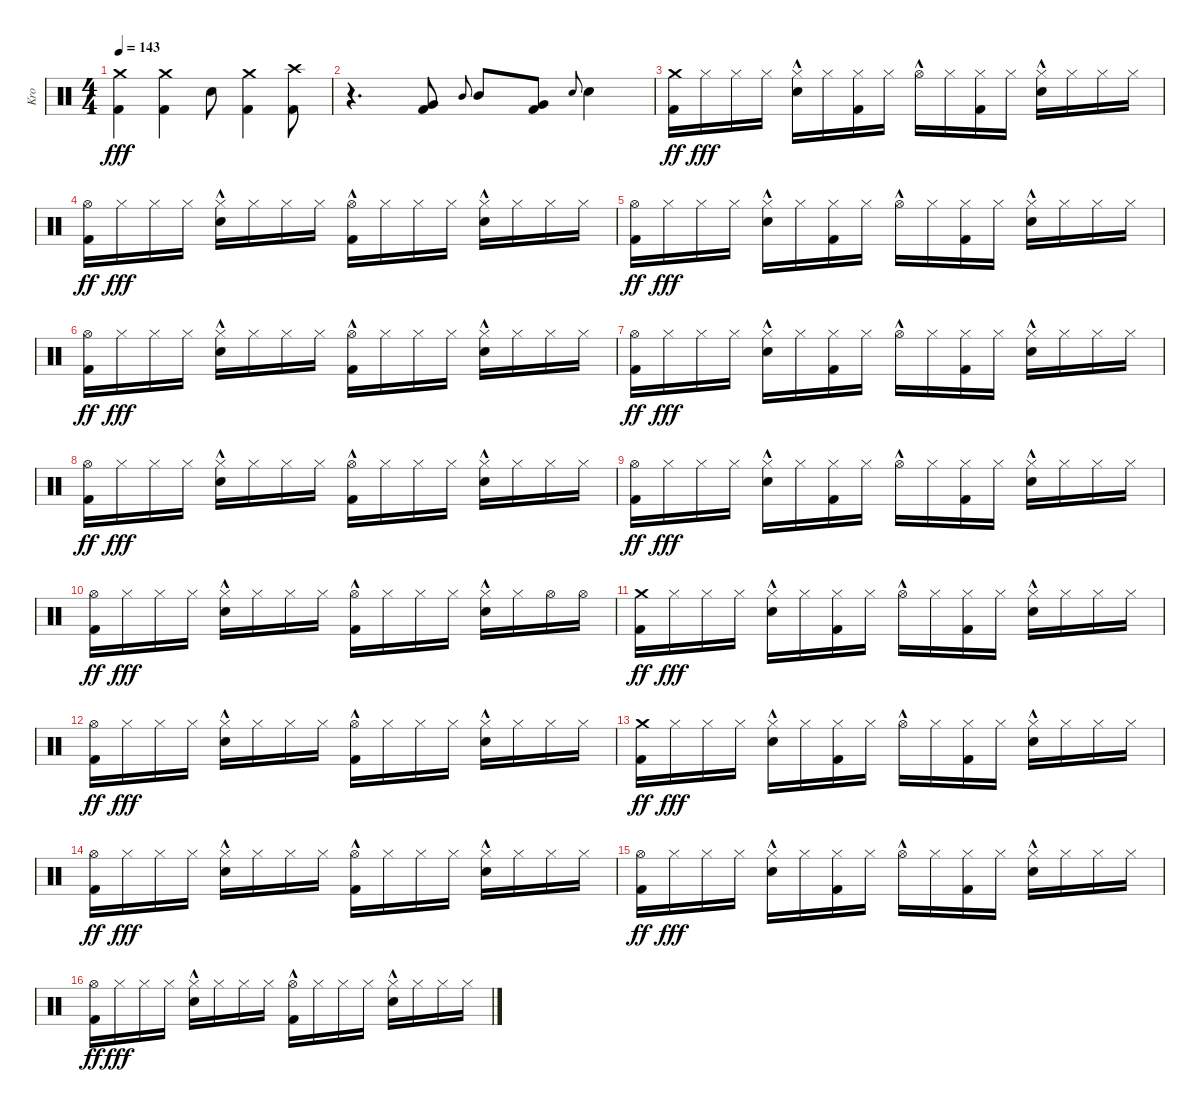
\track ("Kro" "Kro") {instrument percussion}
\staff {score}
\articulation defaults
\ts (4 4)
\tempo 143
\clef neutral
\ks c
("Crash medium (hit)" "Kick (hit) 2").4{dy fff} ("Crash medium (hit)" "Kick (hit) 2").4 "Electric Snare (hit)".8 ("Crash medium (hit)" "Kick (hit) 2").4 ("Crash high (hit)" "Kick (hit) 2").8 |
r.4{d} ("Very Low Tom (hit)" "Kick (hit) 2").8 "Mid Tom (hit)".8{gr onbeat} "Mid Tom (hit)".8 ("Very Low Tom (hit)" "Kick (hit) 2").8 "Electric Snare (hit)".8{gr onbeat} "Electric Snare (hit)".4 |
("Crash medium (hit)" "Kick (hit) 2").16{dy ff} "Hi-Hat (closed)".16{dy fff} "Hi-Hat (closed)".16 "Hi-Hat (closed)".16 ("Hi-Hat (closed)"{hac} "Electric Snare (hit)").16 "Hi-Hat (closed)".16 ("Hi-Hat (closed)" "Kick (hit) 2").16 "Hi-Hat (closed)".16 "Hi-Hat (open)"{hac}.16 "Hi-Hat (closed)".16 ("Hi-Hat (closed)" "Kick (hit) 2").16 "Hi-Hat (closed)".16 ("Hi-Hat (closed)"{hac} "Electric Snare (hit)").16 "Hi-Hat (closed)".16 "Hi-Hat (closed)".16 "Hi-Hat (closed)".16 |
("Hi-Hat (open)" "Kick (hit) 2").16{dy ff} "Hi-Hat (closed)".16{dy fff} "Hi-Hat (closed)".16 "Hi-Hat (closed)".16 ("Hi-Hat (closed)"{hac} "Electric Snare (hit)").16 "Hi-Hat (closed)".16 "Hi-Hat (closed)".16 "Hi-Hat (closed)".16 ("Hi-Hat (open)"{hac} "Kick (hit) 2").16 "Hi-Hat (closed)".16 "Hi-Hat (closed)".16 "Hi-Hat (closed)".16 ("Hi-Hat (closed)"{hac} "Electric Snare (hit)").16 "Hi-Hat (closed)".16 "Hi-Hat (closed)".16 "Hi-Hat (closed)".16 |
("Hi-Hat (open)" "Kick (hit) 2").16{dy ff} "Hi-Hat (closed)".16{dy fff} "Hi-Hat (closed)".16 "Hi-Hat (closed)".16 ("Hi-Hat (closed)"{hac} "Electric Snare (hit)").16 "Hi-Hat (closed)".16 ("Hi-Hat (closed)" "Kick (hit) 2").16 "Hi-Hat (closed)".16 "Hi-Hat (open)"{hac}.16 "Hi-Hat (closed)".16 ("Hi-Hat (closed)" "Kick (hit) 2").16 "Hi-Hat (closed)".16 ("Hi-Hat (closed)"{hac} "Electric Snare (hit)").16 "Hi-Hat (closed)".16 "Hi-Hat (closed)".16 "Hi-Hat (closed)".16 |
("Hi-Hat (open)" "Kick (hit) 2").16{dy ff} "Hi-Hat (closed)".16{dy fff} "Hi-Hat (closed)".16 "Hi-Hat (closed)".16 ("Hi-Hat (closed)"{hac} "Electric Snare (hit)").16 "Hi-Hat (closed)".16 "Hi-Hat (closed)".16 "Hi-Hat (closed)".16 ("Hi-Hat (open)"{hac} "Kick (hit) 2").16 "Hi-Hat (closed)".16 "Hi-Hat (closed)".16 "Hi-Hat (closed)".16 ("Hi-Hat (closed)"{hac} "Electric Snare (hit)").16 "Hi-Hat (closed)".16 "Hi-Hat (closed)".16 "Hi-Hat (closed)".16 |
("Hi-Hat (open)" "Kick (hit) 2").16{dy ff} "Hi-Hat (closed)".16{dy fff} "Hi-Hat (closed)".16 "Hi-Hat (closed)".16 ("Hi-Hat (closed)"{hac} "Electric Snare (hit)").16 "Hi-Hat (closed)".16 ("Hi-Hat (closed)" "Kick (hit) 2").16 "Hi-Hat (closed)".16 "Hi-Hat (open)"{hac}.16 "Hi-Hat (closed)".16 ("Hi-Hat (closed)" "Kick (hit) 2").16 "Hi-Hat (closed)".16 ("Hi-Hat (closed)"{hac} "Electric Snare (hit)").16 "Hi-Hat (closed)".16 "Hi-Hat (closed)".16 "Hi-Hat (closed)".16 |
("Hi-Hat (open)" "Kick (hit) 2").16{dy ff} "Hi-Hat (closed)".16{dy fff} "Hi-Hat (closed)".16 "Hi-Hat (closed)".16 ("Hi-Hat (closed)"{hac} "Electric Snare (hit)").16 "Hi-Hat (closed)".16 "Hi-Hat (closed)".16 "Hi-Hat (closed)".16 ("Hi-Hat (open)"{hac} "Kick (hit) 2").16 "Hi-Hat (closed)".16 "Hi-Hat (closed)".16 "Hi-Hat (closed)".16 ("Hi-Hat (closed)"{hac} "Electric Snare (hit)").16 "Hi-Hat (closed)".16 "Hi-Hat (closed)".16 "Hi-Hat (closed)".16 |
("Hi-Hat (open)" "Kick (hit) 2").16{dy ff} "Hi-Hat (closed)".16{dy fff} "Hi-Hat (closed)".16 "Hi-Hat (closed)".16 ("Hi-Hat (closed)"{hac} "Electric Snare (hit)").16 "Hi-Hat (closed)".16 ("Hi-Hat (closed)" "Kick (hit) 2").16 "Hi-Hat (closed)".16 "Hi-Hat (open)"{hac}.16 "Hi-Hat (closed)".16 ("Hi-Hat (closed)" "Kick (hit) 2").16 "Hi-Hat (closed)".16 ("Hi-Hat (closed)"{hac} "Electric Snare (hit)").16 "Hi-Hat (closed)".16 "Hi-Hat (closed)".16 "Hi-Hat (closed)".16 |
("Hi-Hat (open)" "Kick (hit) 2").16{dy ff} "Hi-Hat (closed)".16{dy fff} "Hi-Hat (closed)".16 "Hi-Hat (closed)".16 ("Hi-Hat (closed)"{hac} "Electric Snare (hit)").16 "Hi-Hat (closed)".16 "Hi-Hat (closed)".16 "Hi-Hat (closed)".16 ("Hi-Hat (open)"{hac} "Kick (hit) 2").16 "Hi-Hat (closed)".16 "Hi-Hat (closed)".16 "Hi-Hat (closed)".16 ("Hi-Hat (closed)"{hac} "Electric Snare (hit)").16 "Hi-Hat (closed)".16 "Hi-Hat (open)".16 "Hi-Hat (open)".16 |
("Crash medium (hit)" "Kick (hit) 2").16{dy ff} "Hi-Hat (closed)".16{dy fff} "Hi-Hat (closed)".16 "Hi-Hat (closed)".16 ("Hi-Hat (closed)"{hac} "Electric Snare (hit)").16 "Hi-Hat (closed)".16 ("Hi-Hat (closed)" "Kick (hit) 2").16 "Hi-Hat (closed)".16 "Hi-Hat (open)"{hac}.16 "Hi-Hat (closed)".16 ("Hi-Hat (closed)" "Kick (hit) 2").16 "Hi-Hat (closed)".16 ("Hi-Hat (closed)"{hac} "Electric Snare (hit)").16 "Hi-Hat (closed)".16 "Hi-Hat (closed)".16 "Hi-Hat (closed)".16 |
("Hi-Hat (open)" "Kick (hit) 2").16{dy ff} "Hi-Hat (closed)".16{dy fff} "Hi-Hat (closed)".16 "Hi-Hat (closed)".16 ("Hi-Hat (closed)"{hac} "Electric Snare (hit)").16 "Hi-Hat (closed)".16 "Hi-Hat (closed)".16 "Hi-Hat (closed)".16 ("Hi-Hat (open)"{hac} "Kick (hit) 2").16 "Hi-Hat (closed)".16 "Hi-Hat (closed)".16 "Hi-Hat (closed)".16 ("Hi-Hat (closed)"{hac} "Electric Snare (hit)").16 "Hi-Hat (closed)".16 "Hi-Hat (closed)".16 "Hi-Hat (closed)".16 |
("Crash medium (hit)" "Kick (hit) 2").16{dy ff} "Hi-Hat (closed)".16{dy fff} "Hi-Hat (closed)".16 "Hi-Hat (closed)".16 ("Hi-Hat (closed)"{hac} "Electric Snare (hit)").16 "Hi-Hat (closed)".16 ("Hi-Hat (closed)" "Kick (hit) 2").16 "Hi-Hat (closed)".16 "Hi-Hat (open)"{hac}.16 "Hi-Hat (closed)".16 ("Hi-Hat (closed)" "Kick (hit) 2").16 "Hi-Hat (closed)".16 ("Hi-Hat (closed)"{hac} "Electric Snare (hit)").16 "Hi-Hat (closed)".16 "Hi-Hat (closed)".16 "Hi-Hat (closed)".16 |
("Hi-Hat (open)" "Kick (hit) 2").16{dy ff} "Hi-Hat (closed)".16{dy fff} "Hi-Hat (closed)".16 "Hi-Hat (closed)".16 ("Hi-Hat (closed)"{hac} "Electric Snare (hit)").16 "Hi-Hat (closed)".16 "Hi-Hat (closed)".16 "Hi-Hat (closed)".16 ("Hi-Hat (open)"{hac} "Kick (hit) 2").16 "Hi-Hat (closed)".16 "Hi-Hat (closed)".16 "Hi-Hat (closed)".16 ("Hi-Hat (closed)"{hac} "Electric Snare (hit)").16 "Hi-Hat (closed)".16 "Hi-Hat (closed)".16 "Hi-Hat (closed)".16 |
("Hi-Hat (open)" "Kick (hit) 2").16{dy ff} "Hi-Hat (closed)".16{dy fff} "Hi-Hat (closed)".16 "Hi-Hat (closed)".16 ("Hi-Hat (closed)"{hac} "Electric Snare (hit)").16 "Hi-Hat (closed)".16 ("Hi-Hat (closed)" "Kick (hit) 2").16 "Hi-Hat (closed)".16 "Hi-Hat (open)"{hac}.16 "Hi-Hat (closed)".16 ("Hi-Hat (closed)" "Kick (hit) 2").16 "Hi-Hat (closed)".16 ("Hi-Hat (closed)"{hac} "Electric Snare (hit)").16 "Hi-Hat (closed)".16 "Hi-Hat (closed)".16 "Hi-Hat (closed)".16 |
("Hi-Hat (open)" "Kick (hit) 2").16{dy ff} "Hi-Hat (closed)".16{dy fff} "Hi-Hat (closed)".16 "Hi-Hat (closed)".16 ("Hi-Hat (closed)"{hac} "Electric Snare (hit)").16 "Hi-Hat (closed)".16 "Hi-Hat (closed)".16 "Hi-Hat (closed)".16 ("Hi-Hat (open)"{hac} "Kick (hit) 2").16 "Hi-Hat (closed)".16 "Hi-Hat (closed)".16 "Hi-Hat (closed)".16 ("Hi-Hat (closed)"{hac} "Electric Snare (hit)").16 "Hi-Hat (closed)".16 "Hi-Hat (closed)".16 "Hi-Hat (closed)".16
